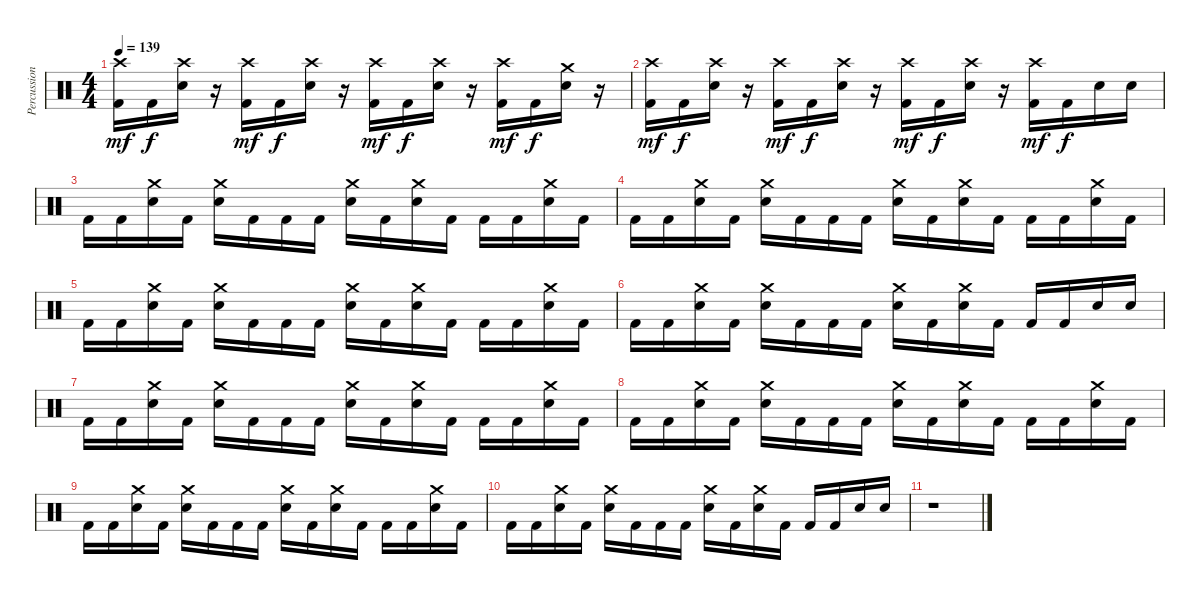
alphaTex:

\track ("Percussion" "Percussion") {instrument percussion}
\staff {score}
\articulation defaults
\ts (4 4)
\tempo 139
\clef neutral
\ks c
("Crash high (hit)" "Kick (hit) 2").16{dy mf} "Kick (hit) 2".16{dy f} ("Crash high (hit)" "Snare (hit) 2").16 r.16 ("Crash high (hit)" "Kick (hit) 2").16{dy mf} "Kick (hit) 2".16{dy f} ("Crash high (hit)" "Snare (hit) 2").16 r.16 ("Crash high (hit)" "Kick (hit) 2").16{dy mf} "Kick (hit) 2".16{dy f} ("Crash high (hit)" "Snare (hit) 2").16 r.16 ("Crash high (hit)" "Kick (hit) 2").16{dy mf} "Kick (hit) 2".16{dy f} ("Crash medium (hit)" "Snare (hit) 2").16 r.16 |
("Crash high (hit)" "Kick (hit) 2").16{dy mf} "Kick (hit) 2".16{dy f} ("Crash high (hit)" "Snare (hit) 2").16 r.16 ("Crash high (hit)" "Kick (hit) 2").16{dy mf} "Kick (hit) 2".16{dy f} ("Crash high (hit)" "Snare (hit) 2").16 r.16 ("Crash high (hit)" "Kick (hit) 2").16{dy mf} "Kick (hit) 2".16{dy f} ("Crash high (hit)" "Snare (hit) 2").16 r.16 ("Crash high (hit)" "Kick (hit) 2").16{dy mf} "Kick (hit) 2".16{dy f} "Snare (hit) 2".16 "Snare (hit) 2".16 |
"Kick (hit) 2".16 "Kick (hit) 2".16 ("Crash medium (hit)" "Snare (hit) 2").16 "Kick (hit) 2".16 ("Crash medium (hit)" "Snare (hit) 2").16 "Kick (hit) 2".16 "Kick (hit) 2".16 "Kick (hit) 2".16 ("Crash medium (hit)" "Snare (hit) 2").16 "Kick (hit) 2".16 ("Crash medium (hit)" "Snare (hit) 2").16 "Kick (hit) 2".16 "Kick (hit) 2".16 "Kick (hit) 2".16 ("Crash medium (hit)" "Snare (hit) 2").16 "Kick (hit) 2".16 |
"Kick (hit) 2".16 "Kick (hit) 2".16 ("Crash medium (hit)" "Snare (hit) 2").16 "Kick (hit) 2".16 ("Crash medium (hit)" "Snare (hit) 2").16 "Kick (hit) 2".16 "Kick (hit) 2".16 "Kick (hit) 2".16 ("Crash medium (hit)" "Snare (hit) 2").16 "Kick (hit) 2".16 ("Crash medium (hit)" "Snare (hit) 2").16 "Kick (hit) 2".16 "Kick (hit) 2".16 "Kick (hit) 2".16 ("Crash medium (hit)" "Snare (hit) 2").16 "Kick (hit) 2".16 |
"Kick (hit) 2".16 "Kick (hit) 2".16 ("Crash medium (hit)" "Snare (hit) 2").16 "Kick (hit) 2".16 ("Crash medium (hit)" "Snare (hit) 2").16 "Kick (hit) 2".16 "Kick (hit) 2".16 "Kick (hit) 2".16 ("Crash medium (hit)" "Snare (hit) 2").16 "Kick (hit) 2".16 ("Crash medium (hit)" "Snare (hit) 2").16 "Kick (hit) 2".16 "Kick (hit) 2".16 "Kick (hit) 2".16 ("Crash medium (hit)" "Snare (hit) 2").16 "Kick (hit) 2".16 |
"Kick (hit) 2".16 "Kick (hit) 2".16 ("Crash medium (hit)" "Snare (hit) 2").16 "Kick (hit) 2".16 ("Crash medium (hit)" "Snare (hit) 2").16 "Kick (hit) 2".16 "Kick (hit) 2".16 "Kick (hit) 2".16 ("Crash medium (hit)" "Snare (hit) 2").16 "Kick (hit) 2".16 ("Crash medium (hit)" "Snare (hit) 2").16 "Kick (hit) 2".16 "Kick (hit) 2".16 "Kick (hit) 2".16 "Snare (hit) 2".16 "Snare (hit) 2".16 |
"Kick (hit) 2".16 "Kick (hit) 2".16 ("Crash medium (hit)" "Snare (hit) 2").16 "Kick (hit) 2".16 ("Crash medium (hit)" "Snare (hit) 2").16 "Kick (hit) 2".16 "Kick (hit) 2".16 "Kick (hit) 2".16 ("Crash medium (hit)" "Snare (hit) 2").16 "Kick (hit) 2".16 ("Crash medium (hit)" "Snare (hit) 2").16 "Kick (hit) 2".16 "Kick (hit) 2".16 "Kick (hit) 2".16 ("Crash medium (hit)" "Snare (hit) 2").16 "Kick (hit) 2".16 |
"Kick (hit) 2".16 "Kick (hit) 2".16 ("Crash medium (hit)" "Snare (hit) 2").16 "Kick (hit) 2".16 ("Crash medium (hit)" "Snare (hit) 2").16 "Kick (hit) 2".16 "Kick (hit) 2".16 "Kick (hit) 2".16 ("Crash medium (hit)" "Snare (hit) 2").16 "Kick (hit) 2".16 ("Crash medium (hit)" "Snare (hit) 2").16 "Kick (hit) 2".16 "Kick (hit) 2".16 "Kick (hit) 2".16 ("Crash medium (hit)" "Snare (hit) 2").16 "Kick (hit) 2".16 |
"Kick (hit) 2".16 "Kick (hit) 2".16 ("Crash medium (hit)" "Snare (hit) 2").16 "Kick (hit) 2".16 ("Crash medium (hit)" "Snare (hit) 2").16 "Kick (hit) 2".16 "Kick (hit) 2".16 "Kick (hit) 2".16 ("Crash medium (hit)" "Snare (hit) 2").16 "Kick (hit) 2".16 ("Crash medium (hit)" "Snare (hit) 2").16 "Kick (hit) 2".16 "Kick (hit) 2".16 "Kick (hit) 2".16 ("Crash medium (hit)" "Snare (hit) 2").16 "Kick (hit) 2".16 |
"Kick (hit) 2".16 "Kick (hit) 2".16 ("Crash medium (hit)" "Snare (hit) 2").16 "Kick (hit) 2".16 ("Crash medium (hit)" "Snare (hit) 2").16 "Kick (hit) 2".16 "Kick (hit) 2".16 "Kick (hit) 2".16 ("Crash medium (hit)" "Snare (hit) 2").16 "Kick (hit) 2".16 ("Crash medium (hit)" "Snare (hit) 2").16 "Kick (hit) 2".16 "Kick (hit) 2".16 "Kick (hit) 2".16 "Snare (hit) 2".16 "Snare (hit) 2".16 |
r.1
